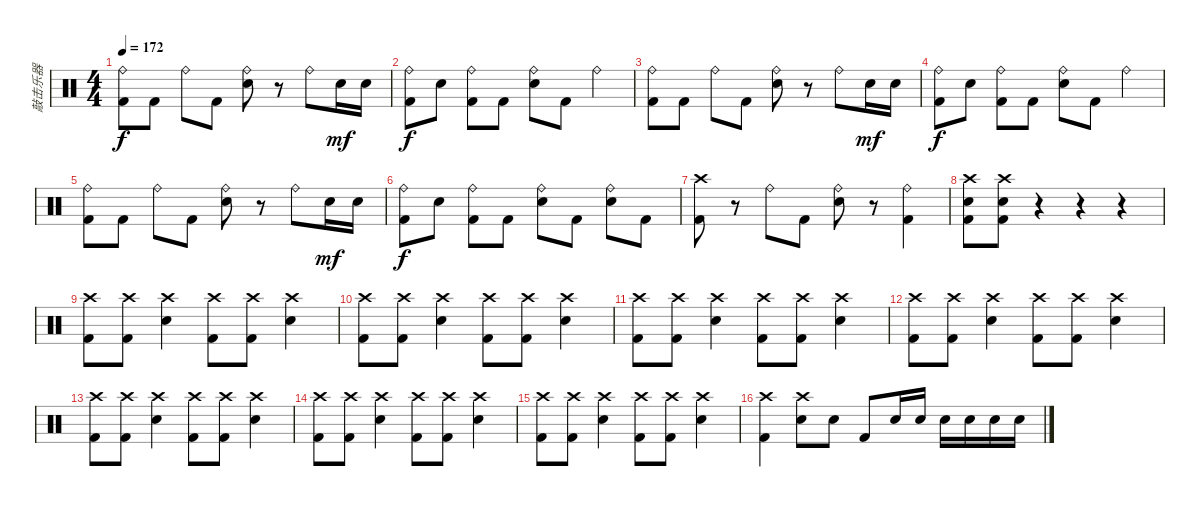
\track ("敲击乐器" "敲击乐器") {instrument percussion}
\staff {score}
\articulation defaults
\ts (4 4)
\tempo 172
\clef neutral
\ks c
("Ride (bell)" "Kick (hit) 2").8{dy f} "Kick (hit) 2".8 "Ride (bell)".8 "Kick (hit) 2".8 ("Ride (bell)" "Electric Snare (hit)").8 r.8 "Ride (bell)".8 "Electric Snare (hit)".16{dy mf} "Electric Snare (hit)".16 |
("Ride (bell)" "Kick (hit) 2").8{dy f} "Electric Snare (hit)".8 ("Ride (bell)" "Kick (hit) 2").8 "Kick (hit) 2".8 ("Ride (bell)" "Electric Snare (hit)").8 "Kick (hit) 2".8 "Ride (bell)".4 |
("Ride (bell)" "Kick (hit) 2").8 "Kick (hit) 2".8 "Ride (bell)".8 "Kick (hit) 2".8 ("Ride (bell)" "Electric Snare (hit)").8 r.8 "Ride (bell)".8 "Electric Snare (hit)".16{dy mf} "Electric Snare (hit)".16 |
("Ride (bell)" "Kick (hit) 2").8{dy f} "Electric Snare (hit)".8 ("Ride (bell)" "Kick (hit) 2").8 "Kick (hit) 2".8 ("Ride (bell)" "Electric Snare (hit)").8 "Kick (hit) 2".8 "Ride (bell)".4 |
("Ride (bell)" "Kick (hit) 2").8 "Kick (hit) 2".8 "Ride (bell)".8 "Kick (hit) 2".8 ("Ride (bell)" "Electric Snare (hit)").8 r.8 "Ride (bell)".8 "Electric Snare (hit)".16{dy mf} "Electric Snare (hit)".16 |
("Ride (bell)" "Kick (hit) 2").8{dy f} "Electric Snare (hit)".8 ("Ride (bell)" "Kick (hit) 2").8 "Kick (hit) 2".8 ("Ride (bell)" "Electric Snare (hit)").8 "Kick (hit) 2".8 ("Ride (bell)" "Electric Snare (hit)").8 "Kick (hit) 2".8 |
("Crash high (hit)" "Kick (hit) 2").8 r.8 "Ride (bell)".8 "Kick (hit) 2".8 ("Ride (bell)" "Electric Snare (hit)").8 r.8 ("Ride (bell)" "Kick (hit) 2").4 |
("Crash high (hit)" "Electric Snare (hit)" "Kick (hit) 2").8 ("Crash high (hit)" "Electric Snare (hit)" "Kick (hit) 2").8 r.4 r.4 r.4 |
("Crash high (hit)" "Kick (hit) 2").8 ("Crash high (hit)" "Kick (hit) 2").8 ("Crash high (hit)" "Electric Snare (hit)").4 ("Crash high (hit)" "Kick (hit) 2").8 ("Crash high (hit)" "Kick (hit) 2").8 ("Crash high (hit)" "Electric Snare (hit)").4 |
("Crash high (hit)" "Kick (hit) 2").8 ("Crash high (hit)" "Kick (hit) 2").8 ("Crash high (hit)" "Electric Snare (hit)").4 ("Crash high (hit)" "Kick (hit) 2").8 ("Crash high (hit)" "Kick (hit) 2").8 ("Crash high (hit)" "Electric Snare (hit)").4 |
("Crash high (hit)" "Kick (hit) 2").8 ("Crash high (hit)" "Kick (hit) 2").8 ("Crash high (hit)" "Electric Snare (hit)").4 ("Crash high (hit)" "Kick (hit) 2").8 ("Crash high (hit)" "Kick (hit) 2").8 ("Crash high (hit)" "Electric Snare (hit)").4 |
("Crash high (hit)" "Kick (hit) 2").8 ("Crash high (hit)" "Kick (hit) 2").8 ("Crash high (hit)" "Electric Snare (hit)").4 ("Crash high (hit)" "Kick (hit) 2").8 ("Crash high (hit)" "Kick (hit) 2").8 ("Crash high (hit)" "Electric Snare (hit)").4 |
("Crash high (hit)" "Kick (hit) 2").8 ("Crash high (hit)" "Kick (hit) 2").8 ("Crash high (hit)" "Electric Snare (hit)").4 ("Crash high (hit)" "Kick (hit) 2").8 ("Crash high (hit)" "Kick (hit) 2").8 ("Crash high (hit)" "Electric Snare (hit)").4 |
("Crash high (hit)" "Kick (hit) 2").8 ("Crash high (hit)" "Kick (hit) 2").8 ("Crash high (hit)" "Electric Snare (hit)").4 ("Crash high (hit)" "Kick (hit) 2").8 ("Crash high (hit)" "Kick (hit) 2").8 ("Crash high (hit)" "Electric Snare (hit)").4 |
("Crash high (hit)" "Kick (hit) 2").8 ("Crash high (hit)" "Kick (hit) 2").8 ("Crash high (hit)" "Electric Snare (hit)").4 ("Crash high (hit)" "Kick (hit) 2").8 ("Crash high (hit)" "Kick (hit) 2").8 ("Crash high (hit)" "Electric Snare (hit)").4 |
("Crash high (hit)" "Kick (hit) 2").4 ("Crash high (hit)" "Electric Snare (hit)").8 "Electric Snare (hit)".8 "Kick (hit) 2".8 "Electric Snare (hit)".16 "Electric Snare (hit)".16 "Electric Snare (hit)".16 "Electric Snare (hit)".16 "Electric Snare (hit)".16 "Electric Snare (hit)".16
